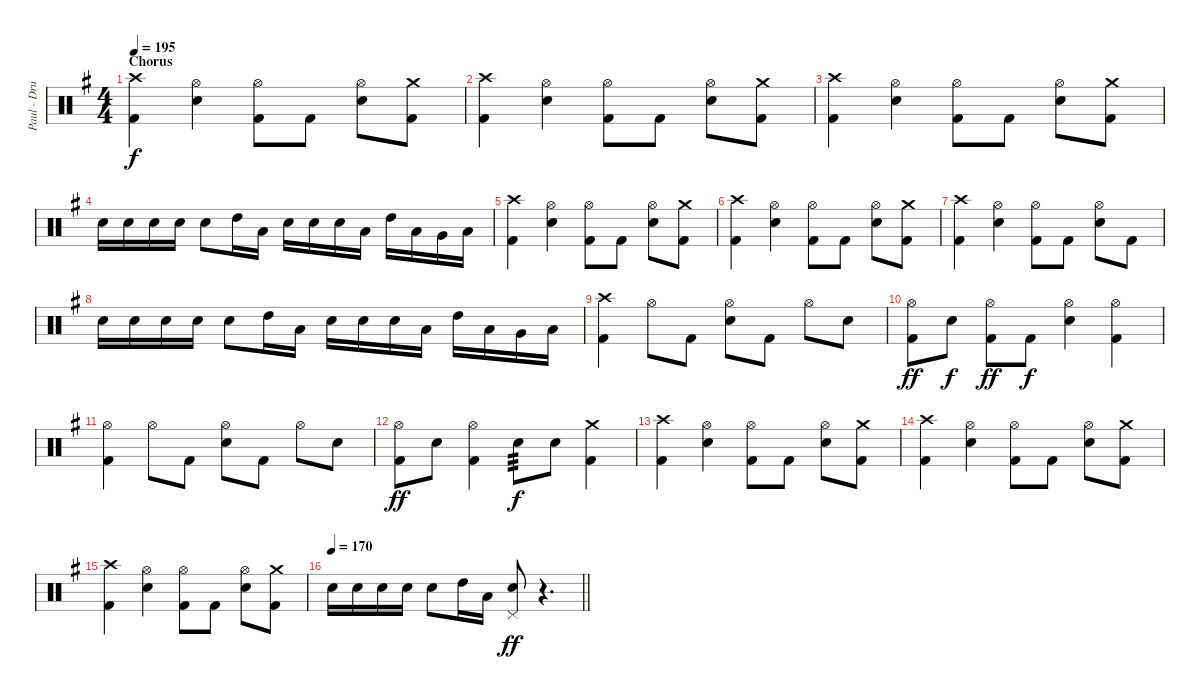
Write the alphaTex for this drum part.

\track ("Paul - Drums" "Paul - Dru") {instrument percussion}
\staff {score}
\articulation defaults
\ts (4 4)
\section ("" "Chorus")
\tempo 195
\clef neutral
\ks g
("Crash high (hit)" "Kick (hit) 2").4{dy f} ("Hi-Hat (open)" "Electric Snare (hit)").4 ("Hi-Hat (open)" "Kick (hit) 2").8 "Kick (hit) 2".8 ("Hi-Hat (open)" "Electric Snare (hit)").8 ("Crash medium (hit)" "Kick (hit) 2").8 |
("Crash high (hit)" "Kick (hit) 2").4 ("Hi-Hat (open)" "Electric Snare (hit)").4 ("Hi-Hat (open)" "Kick (hit) 2").8 "Kick (hit) 2".8 ("Hi-Hat (open)" "Electric Snare (hit)").8 ("Crash medium (hit)" "Kick (hit) 2").8 |
("Crash high (hit)" "Kick (hit) 2").4 ("Hi-Hat (open)" "Electric Snare (hit)").4 ("Hi-Hat (open)" "Kick (hit) 2").8 "Kick (hit) 2".8 ("Hi-Hat (open)" "Electric Snare (hit)").8 ("Crash medium (hit)" "Kick (hit) 2").8 |
"Electric Snare (hit)".16 "Electric Snare (hit)".16 "Electric Snare (hit)".16 "Electric Snare (hit)".16 "Electric Snare (hit)".8 "High Tom (hit)".16 "Low Tom (hit)".16 "Electric Snare (hit)".16 "Electric Snare (hit)".16 "Electric Snare (hit)".16 "Low Tom (hit)".16 "High Tom (hit)".16 "Low Tom (hit)".16 "Very Low Tom (hit)".16 "Low Floor Tom (hit)".16 |
("Crash high (hit)" "Kick (hit) 2").4 ("Hi-Hat (open)" "Electric Snare (hit)").4 ("Hi-Hat (open)" "Kick (hit) 2").8 "Kick (hit) 2".8 ("Hi-Hat (open)" "Electric Snare (hit)").8 ("Crash medium (hit)" "Kick (hit) 2").8 |
("Crash high (hit)" "Kick (hit) 2").4 ("Hi-Hat (open)" "Electric Snare (hit)").4 ("Hi-Hat (open)" "Kick (hit) 2").8 "Kick (hit) 2".8 ("Hi-Hat (open)" "Electric Snare (hit)").8 ("Crash medium (hit)" "Kick (hit) 2").8 |
("Crash high (hit)" "Kick (hit) 2").4 ("Hi-Hat (open)" "Electric Snare (hit)").4 ("Hi-Hat (open)" "Kick (hit) 2").8 "Kick (hit) 2".8 ("Hi-Hat (open)" "Electric Snare (hit)").8 "Kick (hit) 2".8 |
"Electric Snare (hit)".16 "Electric Snare (hit)".16 "Electric Snare (hit)".16 "Electric Snare (hit)".16 "Electric Snare (hit)".8 "High Tom (hit)".16 "Low Tom (hit)".16 "Electric Snare (hit)".16 "Electric Snare (hit)".16 "Electric Snare (hit)".16 "Low Tom (hit)".16 "High Tom (hit)".16 "Low Tom (hit)".16 "Very Low Tom (hit)".16 "Low Floor Tom (hit)".16 |
("Crash high (hit)" "Kick (hit) 2").4 "Hi-Hat (open)".8 "Kick (hit) 2".8 ("Hi-Hat (open)" "Electric Snare (hit)").8 "Kick (hit) 2".8 "Hi-Hat (open)".8 "Electric Snare (hit)".8 |
("Hi-Hat (open)" "Kick (hit) 2").8{dy ff} "Electric Snare (hit)".8{dy f} ("Hi-Hat (open)" "Kick (hit) 2").8{dy ff} "Kick (hit) 2".8{dy f} ("Hi-Hat (open)" "Electric Snare (hit)").4 ("Hi-Hat (open)" "Kick (hit) 2").4 |
("Hi-Hat (open)" "Kick (hit) 2").4 "Hi-Hat (open)".8 "Kick (hit) 2".8 ("Hi-Hat (open)" "Electric Snare (hit)").8 "Kick (hit) 2".8 "Hi-Hat (open)".8 "Electric Snare (hit)".8 |
("Hi-Hat (open)" "Kick (hit) 2").8{dy ff} "Electric Snare (hit)".8 ("Hi-Hat (open)" "Kick (hit) 2").4 "Electric Snare (hit)".8{tp 3 dy f} "Electric Snare (hit)".8 ("Crash medium (hit)" "Kick (hit) 2").4 |
("Crash high (hit)" "Kick (hit) 2").4 ("Hi-Hat (open)" "Electric Snare (hit)").4 ("Hi-Hat (open)" "Kick (hit) 2").8 "Kick (hit) 2".8 ("Hi-Hat (open)" "Electric Snare (hit)").8 ("Crash medium (hit)" "Kick (hit) 2").8 |
("Crash high (hit)" "Kick (hit) 2").4 ("Hi-Hat (open)" "Electric Snare (hit)").4 ("Hi-Hat (open)" "Kick (hit) 2").8 "Kick (hit) 2".8 ("Hi-Hat (open)" "Electric Snare (hit)").8 ("Crash medium (hit)" "Kick (hit) 2").8 |
("Crash high (hit)" "Kick (hit) 2").4 ("Hi-Hat (open)" "Electric Snare (hit)").4 ("Hi-Hat (open)" "Kick (hit) 2").8 "Kick (hit) 2".8 ("Hi-Hat (open)" "Electric Snare (hit)").8 ("Crash medium (hit)" "Kick (hit) 2").8 |
\tempo 170
\barLineRight lightlight "Electric Snare (hit)".16 "Electric Snare (hit)".16 "Electric Snare (hit)".16 "Electric Snare (hit)".16 "Electric Snare (hit)".8 "High Tom (hit)".16 "Low Tom (hit)".16
("Pedal Hi-Hat (hit)" "Electric Snare (hit)").8{dy ff} r.4{d}
